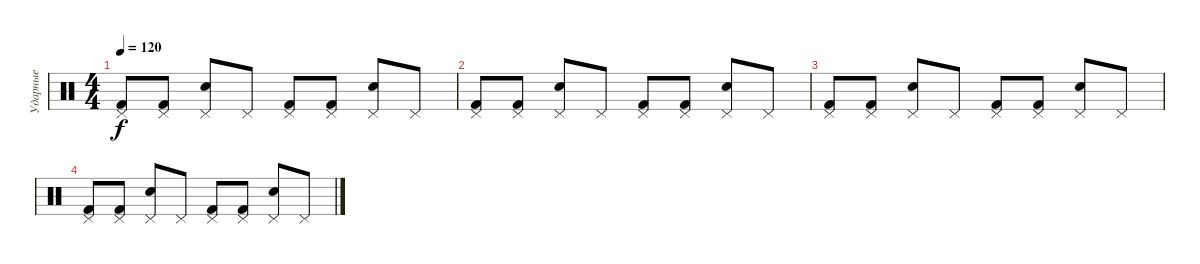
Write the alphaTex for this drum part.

\track ("Ударные" "Ударные") {instrument percussion}
\staff {score}
\articulation defaults
\ts (4 4)
\tempo 120
\clef neutral
\ks c
("Pedal Hi-Hat (hit)" "Kick (hit) 2").8{dy f} ("Pedal Hi-Hat (hit)" "Kick (hit) 2").8 ("Pedal Hi-Hat (hit)" "Snare (hit) 2").8 "Pedal Hi-Hat (hit)".8 ("Pedal Hi-Hat (hit)" "Kick (hit) 2").8 ("Pedal Hi-Hat (hit)" "Kick (hit) 2").8 ("Pedal Hi-Hat (hit)" "Snare (hit) 2").8 "Pedal Hi-Hat (hit)".8 |
("Pedal Hi-Hat (hit)" "Kick (hit) 2").8 ("Pedal Hi-Hat (hit)" "Kick (hit) 2").8 ("Pedal Hi-Hat (hit)" "Snare (hit) 2").8 "Pedal Hi-Hat (hit)".8 ("Pedal Hi-Hat (hit)" "Kick (hit) 2").8 ("Pedal Hi-Hat (hit)" "Kick (hit) 2").8 ("Pedal Hi-Hat (hit)" "Snare (hit) 2").8 "Pedal Hi-Hat (hit)".8 |
("Pedal Hi-Hat (hit)" "Kick (hit) 2").8 ("Pedal Hi-Hat (hit)" "Kick (hit) 2").8 ("Pedal Hi-Hat (hit)" "Snare (hit) 2").8 "Pedal Hi-Hat (hit)".8 ("Pedal Hi-Hat (hit)" "Kick (hit) 2").8 ("Pedal Hi-Hat (hit)" "Kick (hit) 2").8 ("Pedal Hi-Hat (hit)" "Snare (hit) 2").8 "Pedal Hi-Hat (hit)".8 |
("Pedal Hi-Hat (hit)" "Kick (hit) 2").8 ("Pedal Hi-Hat (hit)" "Kick (hit) 2").8 ("Pedal Hi-Hat (hit)" "Snare (hit) 2").8 "Pedal Hi-Hat (hit)".8 ("Pedal Hi-Hat (hit)" "Kick (hit) 2").8 ("Pedal Hi-Hat (hit)" "Kick (hit) 2").8 ("Pedal Hi-Hat (hit)" "Snare (hit) 2").8 "Pedal Hi-Hat (hit)".8
